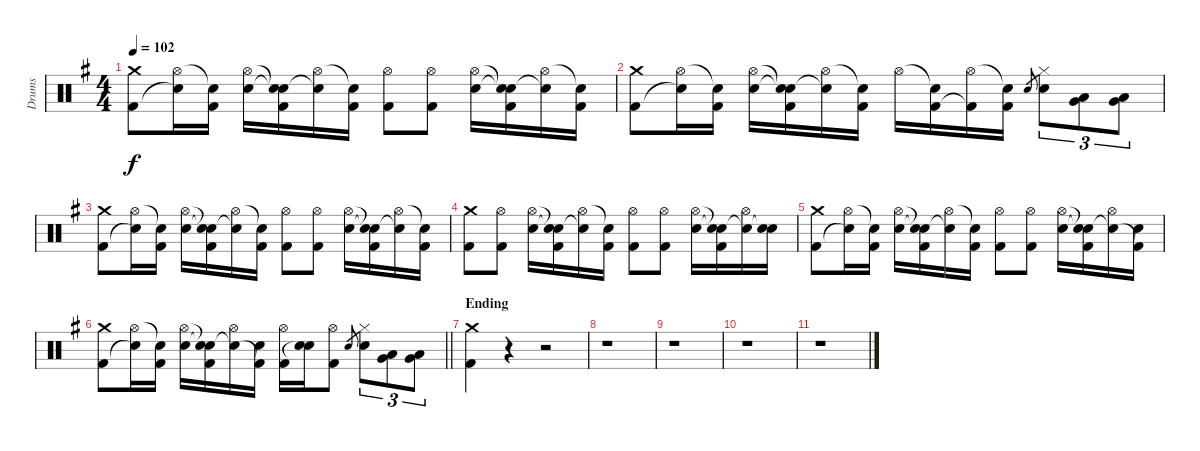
\track ("Drums" "Drums") {instrument percussion}
\staff {score}
\articulation defaults
\ts (4 4)
\tempo 102
\clef neutral
\ks eminor
("Crash medium (hit)" "Kick (hit) 2").8{dy f} ("Hi-Hat (open)" "Snare (hit)"{t}).16 ("Snare (hit)"{t} "Kick (hit) 2").16 ("Hi-Hat (open)" "Electric Snare (hit)").16 ("Snare (hit)"{t} "Snare (hit)"{t} "Kick (hit) 2").16 ("Hi-Hat (open)" "Snare (hit)"{t}).16 ("Snare (hit)"{t} "Kick (hit) 2").16 ("Hi-Hat (open)" "Kick (hit) 2").8 ("Hi-Hat (open)" "Kick (hit) 2").8 ("Hi-Hat (open)" "Electric Snare (hit)").16 ("Snare (hit)"{t} "Snare (hit)"{t} "Kick (hit) 2").16 ("Hi-Hat (open)" "Snare (hit)"{t}).16 ("Snare (hit)"{t} "Kick (hit) 2").16 |
("Crash medium (hit)" "Kick (hit) 2").8 ("Hi-Hat (open)" "Snare (hit)"{t}).16 ("Snare (hit)"{t} "Kick (hit) 2").16 ("Hi-Hat (open)" "Electric Snare (hit)").16 ("Snare (hit)"{t} "Snare (hit)"{t} "Kick (hit) 2").16 ("Hi-Hat (open)" "Snare (hit)"{t}).16 ("Snare (hit)"{t} "Kick (hit) 2").16 "Hi-Hat (open)".16 ("Snare (hit)"{t} "Kick (hit) 2").16 ("Hi-Hat (open)" "Kick (hit) 2"{t}).16 ("Snare (hit)"{t} "Kick (hit) 2").16 "Electric Snare (hit)".8{gr} ("Hi-Hat (closed)" "Electric Snare (hit)").8{tu (3 2)} ("Low Tom (hit)" "Very Low Tom (hit)").8{tu (3 2)} ("Low Tom (hit)" "Very Low Tom (hit)").8{tu (3 2)} |
("Crash medium (hit)" "Kick (hit) 2").8 ("Hi-Hat (open)" "Snare (hit)"{t}).16 ("Snare (hit)"{t} "Kick (hit) 2").16 ("Hi-Hat (open)" "Electric Snare (hit)").16 ("Snare (hit)"{t} "Snare (hit)"{t} "Kick (hit) 2").16 ("Hi-Hat (open)" "Snare (hit)"{t}).16 ("Snare (hit)"{t} "Kick (hit) 2").16 ("Hi-Hat (open)" "Kick (hit) 2").8 ("Hi-Hat (open)" "Kick (hit) 2").8 ("Hi-Hat (open)" "Electric Snare (hit)").16 ("Snare (hit)"{t} "Snare (hit)"{t} "Kick (hit) 2").16 ("Hi-Hat (open)" "Snare (hit)"{t}).16 ("Snare (hit)"{t} "Kick (hit) 2").16 |
("Crash medium (hit)" "Kick (hit) 2").8 ("Hi-Hat (open)" "Kick (hit) 2").8 ("Hi-Hat (open)" "Electric Snare (hit)").16 ("Snare (hit)"{t} "Snare (hit)"{t} "Kick (hit) 2").16 ("Hi-Hat (open)" "Snare (hit)"{t}).16 ("Snare (hit)"{t} "Kick (hit) 2").16 ("Hi-Hat (open)" "Kick (hit) 2").8 ("Hi-Hat (open)" "Kick (hit) 2").8 ("Hi-Hat (open)" "Electric Snare (hit)").16 ("Snare (hit)"{t} "Snare (hit)"{t} "Kick (hit) 2").16 ("Hi-Hat (open)" "Snare (hit)"{t}).16 ("Electric Snare (hit)" "Snare (hit)"{t}).16 |
("Crash medium (hit)" "Kick (hit) 2").8 ("Hi-Hat (open)" "Snare (hit)"{t}).16 ("Snare (hit)"{t} "Kick (hit) 2").16 ("Hi-Hat (open)" "Electric Snare (hit)").16 ("Snare (hit)"{t} "Snare (hit)"{t} "Kick (hit) 2").16 ("Hi-Hat (open)" "Snare (hit)"{t}).16 ("Snare (hit)"{t} "Kick (hit) 2").16 ("Hi-Hat (open)" "Kick (hit) 2").8 ("Hi-Hat (open)" "Kick (hit) 2").8 ("Hi-Hat (open)" "Electric Snare (hit)").16 ("Snare (hit)"{t} "Snare (hit)"{t} "Kick (hit) 2").16 ("Hi-Hat (open)" "Snare (hit)"{t}).16 ("Electric Snare (hit)" "Kick (hit) 2"{t}).16 |
\barLineRight lightlight
("Crash medium (hit)" "Kick (hit) 2").8 ("Hi-Hat (open)" "Snare (hit)"{t}).16 ("Snare (hit)"{t} "Kick (hit) 2").16 ("Hi-Hat (open)" "Electric Snare (hit)").16 ("Snare (hit)"{t} "Snare (hit)"{t} "Kick (hit) 2").16 ("Hi-Hat (open)" "Snare (hit)"{t}).16 ("Electric Snare (hit)" "Kick (hit) 2"{t}).16 ("Hi-Hat (open)" "Kick (hit) 2").16 ("Electric Snare (hit)" "Snare (hit)"{t}).16 ("Hi-Hat (open)" "Kick (hit) 2").8 "Electric Snare (hit)".8{gr} ("Hi-Hat (closed)" "Electric Snare (hit)").8{tu (3 2)} ("Low Tom (hit)" "Very Low Tom (hit)").8{tu (3 2)} ("Very Low Tom (hit)" "Low Floor Tom (hit)").8{tu (3 2)} |
\section ("" "Ending")
("Crash medium (hit)" "Kick (hit) 2").4 r.4 r.2 |
r.1 |
r.1 |
r.1 |
r.1
